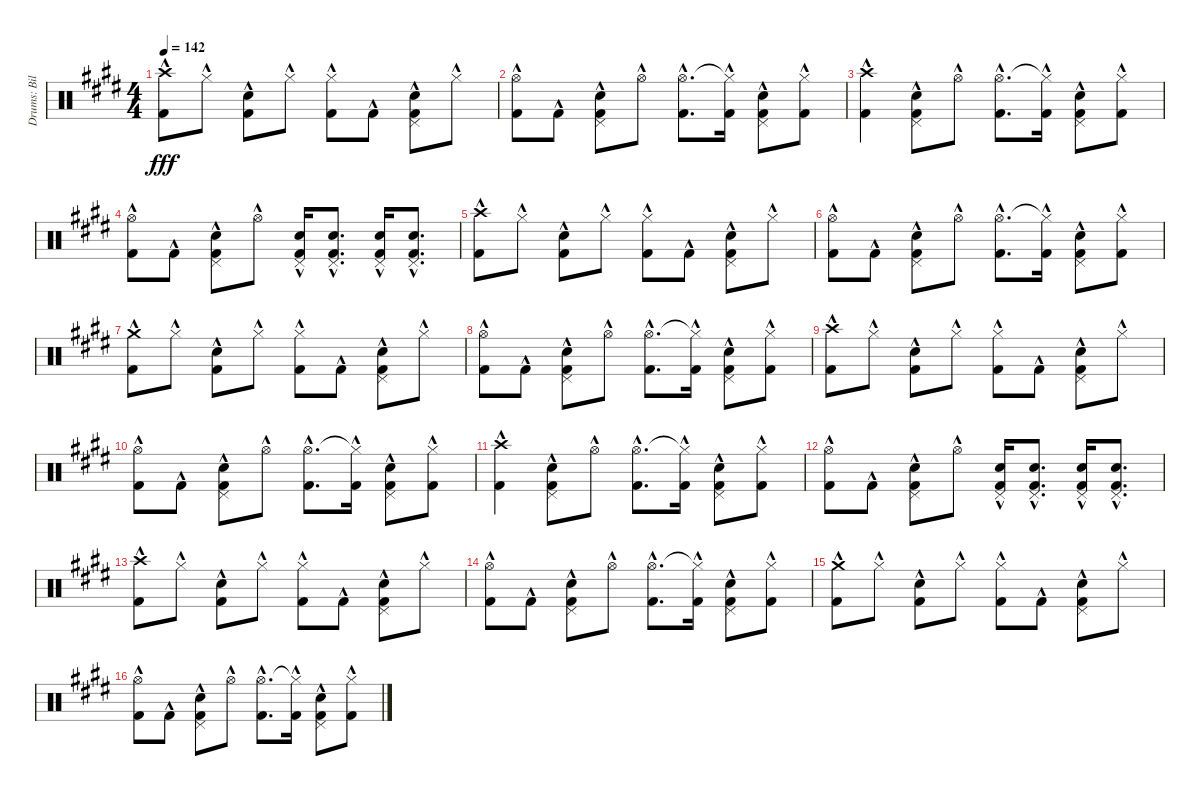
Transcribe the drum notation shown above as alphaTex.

\track ("Drums: Bill" "Drums: Bil") {instrument percussion}
\staff {score}
\articulation defaults
\ts (4 4)
\tempo 142
\clef neutral
\ks e
("Crash high (hit)"{hac} "Kick (hit) 2"{hac}).8{dy fff} "Hi-Hat (closed)"{hac}.8 ("Snare (hit) 2"{hac} "Kick (hit) 2"{hac}).8 "Hi-Hat (closed)"{hac}.8 ("Hi-Hat (closed)"{hac} "Kick (hit) 2"{hac}).8 "Kick (hit) 2"{hac}.8 ("Pedal Hi-Hat (hit)"{hac} "Snare (hit) 2"{hac} "Kick (hit) 2"{hac}).8 "Hi-Hat (closed)"{hac}.8 |
("Hi-Hat (open)"{hac} "Kick (hit) 2"{hac}).8 "Kick (hit) 2"{hac}.8 ("Pedal Hi-Hat (hit)"{hac} "Snare (hit) 2"{hac} "Kick (hit) 2"{hac}).8 "Hi-Hat (open)"{hac}.8 ("Hi-Hat (open)"{hac} "Kick (hit) 2"{hac}).8{d} ("Hi-Hat (closed)"{t} "Kick (hit) 2"{hac}).16 ("Pedal Hi-Hat (hit)"{hac} "Snare (hit) 2"{hac} "Kick (hit) 2"{hac}).8 ("Hi-Hat (closed)"{hac} "Kick (hit) 2"{hac}).8 |
("Crash high (hit)"{hac} "Kick (hit) 2"{hac}).4 ("Pedal Hi-Hat (hit)"{hac} "Snare (hit) 2"{hac} "Kick (hit) 2"{hac}).8 "Hi-Hat (open)"{hac}.8 ("Hi-Hat (open)"{hac} "Kick (hit) 2"{hac}).8{d} ("Hi-Hat (closed)"{t} "Kick (hit) 2"{hac}).16 ("Pedal Hi-Hat (hit)"{hac} "Snare (hit) 2"{hac} "Kick (hit) 2"{hac}).8 ("Hi-Hat (closed)"{hac} "Kick (hit) 2"{hac}).8 |
("Hi-Hat (open)"{hac} "Kick (hit) 2"{hac}).8 "Kick (hit) 2"{hac}.8 ("Pedal Hi-Hat (hit)"{hac} "Snare (hit) 2"{hac} "Kick (hit) 2"{hac}).8 "Hi-Hat (open)"{hac}.8 ("Pedal Hi-Hat (hit)"{hac} "Snare (hit) 2"{hac} "Kick (hit) 2"{hac}).16 ("Pedal Hi-Hat (hit)"{hac} "Snare (hit) 2"{hac} "Kick (hit) 2"{hac}).8{d} ("Pedal Hi-Hat (hit)"{hac} "Snare (hit) 2"{hac} "Kick (hit) 2"{hac}).16 ("Pedal Hi-Hat (hit)"{hac} "Snare (hit) 2"{hac} "Kick (hit) 2"{hac}).8{d} |
("Crash high (hit)"{hac} "Kick (hit) 2"{hac}).8 "Hi-Hat (closed)"{hac}.8 ("Snare (hit) 2"{hac} "Kick (hit) 2"{hac}).8 "Hi-Hat (closed)"{hac}.8 ("Hi-Hat (closed)"{hac} "Kick (hit) 2"{hac}).8 "Kick (hit) 2"{hac}.8 ("Pedal Hi-Hat (hit)"{hac} "Snare (hit) 2"{hac} "Kick (hit) 2"{hac}).8 "Hi-Hat (closed)"{hac}.8 |
("Hi-Hat (open)"{hac} "Kick (hit) 2"{hac}).8 "Kick (hit) 2"{hac}.8 ("Pedal Hi-Hat (hit)"{hac} "Snare (hit) 2"{hac} "Kick (hit) 2"{hac}).8 "Hi-Hat (open)"{hac}.8 ("Hi-Hat (open)"{hac} "Kick (hit) 2"{hac}).8{d} ("Hi-Hat (closed)"{t} "Kick (hit) 2"{hac}).16 ("Pedal Hi-Hat (hit)"{hac} "Snare (hit) 2"{hac} "Kick (hit) 2"{hac}).8 ("Hi-Hat (closed)"{hac} "Kick (hit) 2"{hac}).8 |
("Crash medium (hit)"{hac} "Kick (hit) 2"{hac}).8 "Hi-Hat (closed)"{hac}.8 ("Snare (hit) 2"{hac} "Kick (hit) 2"{hac}).8 "Hi-Hat (closed)"{hac}.8 ("Hi-Hat (closed)"{hac} "Kick (hit) 2"{hac}).8 "Kick (hit) 2"{hac}.8 ("Pedal Hi-Hat (hit)"{hac} "Snare (hit) 2"{hac} "Kick (hit) 2"{hac}).8 "Hi-Hat (closed)"{hac}.8 |
("Hi-Hat (open)"{hac} "Kick (hit) 2"{hac}).8 "Kick (hit) 2"{hac}.8 ("Pedal Hi-Hat (hit)"{hac} "Snare (hit) 2"{hac} "Kick (hit) 2"{hac}).8 "Hi-Hat (open)"{hac}.8 ("Hi-Hat (open)"{hac} "Kick (hit) 2"{hac}).8{d} ("Hi-Hat (closed)"{t} "Kick (hit) 2"{hac}).16 ("Pedal Hi-Hat (hit)"{hac} "Snare (hit) 2"{hac} "Kick (hit) 2"{hac}).8 ("Hi-Hat (closed)"{hac} "Kick (hit) 2"{hac}).8 |
("Crash high (hit)"{hac} "Kick (hit) 2"{hac}).8 "Hi-Hat (closed)"{hac}.8 ("Snare (hit) 2"{hac} "Kick (hit) 2"{hac}).8 "Hi-Hat (closed)"{hac}.8 ("Hi-Hat (closed)"{hac} "Kick (hit) 2"{hac}).8 "Kick (hit) 2"{hac}.8 ("Pedal Hi-Hat (hit)"{hac} "Snare (hit) 2"{hac} "Kick (hit) 2"{hac}).8 "Hi-Hat (closed)"{hac}.8 |
("Hi-Hat (open)"{hac} "Kick (hit) 2"{hac}).8 "Kick (hit) 2"{hac}.8 ("Pedal Hi-Hat (hit)"{hac} "Snare (hit) 2"{hac} "Kick (hit) 2"{hac}).8 "Hi-Hat (open)"{hac}.8 ("Hi-Hat (open)"{hac} "Kick (hit) 2"{hac}).8{d} ("Hi-Hat (closed)"{t} "Kick (hit) 2"{hac}).16 ("Pedal Hi-Hat (hit)"{hac} "Snare (hit) 2"{hac} "Kick (hit) 2"{hac}).8 ("Hi-Hat (closed)"{hac} "Kick (hit) 2"{hac}).8 |
("Crash high (hit)"{hac} "Kick (hit) 2"{hac}).4 ("Pedal Hi-Hat (hit)"{hac} "Snare (hit) 2"{hac} "Kick (hit) 2"{hac}).8 "Hi-Hat (open)"{hac}.8 ("Hi-Hat (open)"{hac} "Kick (hit) 2"{hac}).8{d} ("Hi-Hat (closed)"{t} "Kick (hit) 2"{hac}).16 ("Pedal Hi-Hat (hit)"{hac} "Snare (hit) 2"{hac} "Kick (hit) 2"{hac}).8 ("Hi-Hat (closed)"{hac} "Kick (hit) 2"{hac}).8 |
("Hi-Hat (open)"{hac} "Kick (hit) 2"{hac}).8 "Kick (hit) 2"{hac}.8 ("Pedal Hi-Hat (hit)"{hac} "Snare (hit) 2"{hac} "Kick (hit) 2"{hac}).8 "Hi-Hat (open)"{hac}.8 ("Pedal Hi-Hat (hit)"{hac} "Snare (hit) 2"{hac} "Kick (hit) 2"{hac}).16 ("Pedal Hi-Hat (hit)"{hac} "Snare (hit) 2"{hac} "Kick (hit) 2"{hac}).8{d} ("Pedal Hi-Hat (hit)"{hac} "Snare (hit) 2"{hac} "Kick (hit) 2"{hac}).16 ("Pedal Hi-Hat (hit)"{hac} "Snare (hit) 2"{hac} "Kick (hit) 2"{hac}).8{d} |
("Crash high (hit)"{hac} "Kick (hit) 2"{hac}).8 "Hi-Hat (closed)"{hac}.8 ("Snare (hit) 2"{hac} "Kick (hit) 2"{hac}).8 "Hi-Hat (closed)"{hac}.8 ("Hi-Hat (closed)"{hac} "Kick (hit) 2"{hac}).8 "Kick (hit) 2"{hac}.8 ("Pedal Hi-Hat (hit)"{hac} "Snare (hit) 2"{hac} "Kick (hit) 2"{hac}).8 "Hi-Hat (closed)"{hac}.8 |
("Hi-Hat (open)"{hac} "Kick (hit) 2"{hac}).8 "Kick (hit) 2"{hac}.8 ("Pedal Hi-Hat (hit)"{hac} "Snare (hit) 2"{hac} "Kick (hit) 2"{hac}).8 "Hi-Hat (open)"{hac}.8 ("Hi-Hat (open)"{hac} "Kick (hit) 2"{hac}).8{d} ("Hi-Hat (closed)"{t} "Kick (hit) 2"{hac}).16 ("Pedal Hi-Hat (hit)"{hac} "Snare (hit) 2"{hac} "Kick (hit) 2"{hac}).8 ("Hi-Hat (closed)"{hac} "Kick (hit) 2"{hac}).8 |
("Crash medium (hit)"{hac} "Kick (hit) 2"{hac}).8 "Hi-Hat (closed)"{hac}.8 ("Snare (hit) 2"{hac} "Kick (hit) 2"{hac}).8 "Hi-Hat (closed)"{hac}.8 ("Hi-Hat (closed)"{hac} "Kick (hit) 2"{hac}).8 "Kick (hit) 2"{hac}.8 ("Pedal Hi-Hat (hit)"{hac} "Snare (hit) 2"{hac} "Kick (hit) 2"{hac}).8 "Hi-Hat (closed)"{hac}.8 |
("Hi-Hat (open)"{hac} "Kick (hit) 2"{hac}).8 "Kick (hit) 2"{hac}.8 ("Pedal Hi-Hat (hit)"{hac} "Snare (hit) 2"{hac} "Kick (hit) 2"{hac}).8 "Hi-Hat (open)"{hac}.8 ("Hi-Hat (open)"{hac} "Kick (hit) 2"{hac}).8{d} ("Hi-Hat (closed)"{t} "Kick (hit) 2"{hac}).16 ("Pedal Hi-Hat (hit)"{hac} "Snare (hit) 2"{hac} "Kick (hit) 2"{hac}).8 ("Hi-Hat (closed)"{hac} "Kick (hit) 2"{hac}).8
